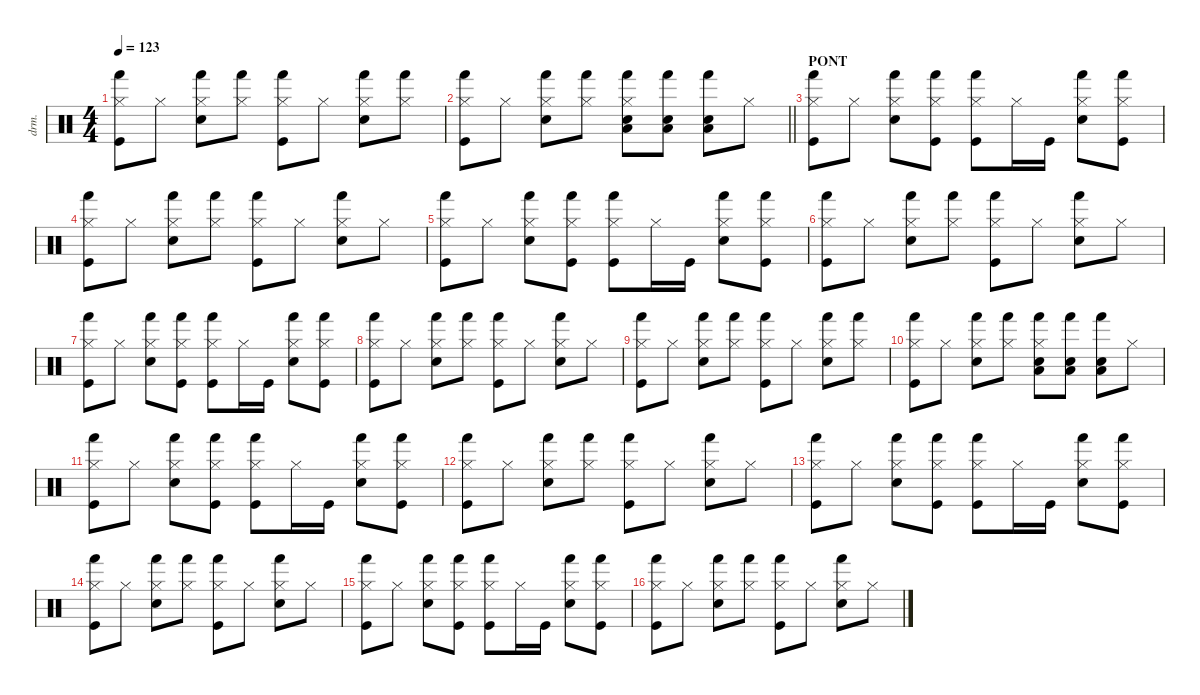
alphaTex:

\defaultSystemsLayout 4
\hideDynamics
\bracketExtendMode nobrackets
\otherSystemsTrackNameOrientation horizontal
\track ("Drums" "drm.") {defaultSystemsLayout 4 instrument percussion}
\staff {score}
\articulation defaults
\ts (4 4)
\tempo 123
\clef neutral
\ks c
("Hand (hit)" "Kick (hit)" "Hi-Hat (closed)").8{dy fff beam Down} "Hi-Hat (closed)".8{beam Down} ("Snare (hit) 2" "Hi-Hat (closed)" "Hand (hit)").8{beam Down} ("Hand (hit)" "Hi-Hat (closed)").8{beam Down} ("Hi-Hat (closed)" "Hand (hit)" "Kick (hit)").8{beam Down} "Hi-Hat (closed)".8{beam Down} ("Hi-Hat (closed)" "Snare (hit) 2" "Hand (hit)").8{beam Down} ("Hi-Hat (closed)" "Hand (hit)").8{beam Down} |
\barLineRight lightlight
("Hi-Hat (closed)" "Kick (hit)" "Hand (hit)").8{beam Down} "Hi-Hat (closed)".8{beam Down} ("Snare (hit) 2" "Hand (hit)" "Hi-Hat (closed)").8{beam Down} ("Hand (hit)" "Hi-Hat (closed)").8{beam Down} ("Snare (hit) 2" "Low Tom (hit)" "Hi-Hat (closed)" "Hand (hit)").8{beam Down} ("Snare (hit) 2" "Low Tom (hit)" "Hand (hit)").8{beam Down} ("Hand (hit)" "Low Tom (hit)" "Snare (hit) 2").8{beam Down} "Hi-Hat (closed)".8{beam Down} |
\section ("" "PONT")
("Hand (hit)" "Hi-Hat (closed)" "Kick (hit)").8{beam Down} "Hi-Hat (closed)".8{beam Down} ("Hi-Hat (closed)" "Hand (hit)" "Snare (hit) 2").8{beam Down} ("Hi-Hat (closed)" "Hand (hit)" "Kick (hit)").8{beam Down} ("Hi-Hat (closed)" "Hand (hit)" "Kick (hit)").8{beam Down} "Hi-Hat (closed)".16{beam Down} "Kick (hit)".16{beam Down} ("Hi-Hat (closed)" "Snare (hit) 2" "Hand (hit)").8{beam Down} ("Hi-Hat (closed)" "Hand (hit)" "Kick (hit)").8{beam Down} |
("Hi-Hat (closed)" "Kick (hit)" "Hand (hit)").8{beam Down} "Hi-Hat (closed)".8{beam Down} ("Snare (hit) 2" "Hand (hit)" "Hi-Hat (closed)").8{beam Down} ("Hi-Hat (closed)" "Hand (hit)").8{beam Down} ("Hi-Hat (closed)" "Kick (hit)" "Hand (hit)").8{beam Down} "Hi-Hat (closed)".8{beam Down} ("Snare (hit) 2" "Hand (hit)" "Hi-Hat (closed)").8{beam Down} "Hi-Hat (closed)".8{beam Down} |
("Hand (hit)" "Hi-Hat (closed)" "Kick (hit)").8{beam Down} "Hi-Hat (closed)".8{beam Down} ("Hi-Hat (closed)" "Hand (hit)" "Snare (hit) 2").8{beam Down} ("Hi-Hat (closed)" "Hand (hit)" "Kick (hit)").8{beam Down} ("Hi-Hat (closed)" "Hand (hit)" "Kick (hit)").8{beam Down} "Hi-Hat (closed)".16{beam Down} "Kick (hit)".16{beam Down} ("Hi-Hat (closed)" "Snare (hit) 2" "Hand (hit)").8{beam Down} ("Hi-Hat (closed)" "Hand (hit)" "Kick (hit)").8{beam Down} |
("Hi-Hat (closed)" "Kick (hit)" "Hand (hit)").8{beam Down} "Hi-Hat (closed)".8{beam Down} ("Snare (hit) 2" "Hand (hit)" "Hi-Hat (closed)").8{beam Down} ("Hi-Hat (closed)" "Hand (hit)").8{beam Down} ("Hi-Hat (closed)" "Kick (hit)" "Hand (hit)").8{beam Down} "Hi-Hat (closed)".8{beam Down} ("Snare (hit) 2" "Hand (hit)" "Hi-Hat (closed)").8{beam Down} "Hi-Hat (closed)".8{beam Down} |
("Hand (hit)" "Hi-Hat (closed)" "Kick (hit)").8{beam Down} "Hi-Hat (closed)".8{beam Down} ("Hi-Hat (closed)" "Hand (hit)" "Snare (hit) 2").8{beam Down} ("Hi-Hat (closed)" "Hand (hit)" "Kick (hit)").8{beam Down} ("Hi-Hat (closed)" "Hand (hit)" "Kick (hit)").8{beam Down} "Hi-Hat (closed)".16{beam Down} "Kick (hit)".16{beam Down} ("Hi-Hat (closed)" "Snare (hit) 2" "Hand (hit)").8{beam Down} ("Hi-Hat (closed)" "Hand (hit)" "Kick (hit)").8{beam Down} |
("Hi-Hat (closed)" "Kick (hit)" "Hand (hit)").8{beam Down} "Hi-Hat (closed)".8{beam Down} ("Snare (hit) 2" "Hand (hit)" "Hi-Hat (closed)").8{beam Down} ("Hi-Hat (closed)" "Hand (hit)").8{beam Down} ("Hi-Hat (closed)" "Kick (hit)" "Hand (hit)").8{beam Down} "Hi-Hat (closed)".8{beam Down} ("Snare (hit) 2" "Hand (hit)" "Hi-Hat (closed)").8{beam Down} "Hi-Hat (closed)".8{beam Down} |
("Kick (hit)" "Hand (hit)" "Hi-Hat (closed)").8{beam Down} "Hi-Hat (closed)".8{beam Down} ("Hand (hit)" "Hi-Hat (closed)" "Snare (hit) 2").8{beam Down} ("Hand (hit)" "Hi-Hat (closed)").8{beam Down} ("Hi-Hat (closed)" "Hand (hit)" "Kick (hit)").8{beam Down} "Hi-Hat (closed)".8{beam Down} ("Snare (hit) 2" "Hi-Hat (closed)" "Hand (hit)").8{beam Down} ("Hi-Hat (closed)" "Hand (hit)").8{beam Down} |
("Hi-Hat (closed)" "Kick (hit)" "Hand (hit)").8{beam Down} "Hi-Hat (closed)".8{beam Down} ("Snare (hit) 2" "Hand (hit)" "Hi-Hat (closed)").8{beam Down} ("Hand (hit)" "Hi-Hat (closed)").8{beam Down} ("Low Tom (hit)" "Snare (hit) 2" "Hi-Hat (closed)" "Hand (hit)").8{beam Down} ("Low Tom (hit)" "Snare (hit) 2" "Hand (hit)").8{beam Down} ("Low Tom (hit)" "Snare (hit) 2" "Hand (hit)").8{beam Down} "Hi-Hat (closed)".8{beam Down} |
("Hand (hit)" "Hi-Hat (closed)" "Kick (hit)").8{beam Down} "Hi-Hat (closed)".8{beam Down} ("Hi-Hat (closed)" "Hand (hit)" "Snare (hit) 2").8{beam Down} ("Hi-Hat (closed)" "Hand (hit)" "Kick (hit)").8{beam Down} ("Hi-Hat (closed)" "Hand (hit)" "Kick (hit)").8{beam Down} "Hi-Hat (closed)".16{beam Down} "Kick (hit)".16{beam Down} ("Hi-Hat (closed)" "Snare (hit) 2" "Hand (hit)").8{beam Down} ("Hi-Hat (closed)" "Hand (hit)" "Kick (hit)").8{beam Down} |
("Hi-Hat (closed)" "Kick (hit)" "Hand (hit)").8{beam Down} "Hi-Hat (closed)".8{beam Down} ("Snare (hit) 2" "Hand (hit)" "Hi-Hat (closed)").8{beam Down} ("Hi-Hat (closed)" "Hand (hit)").8{beam Down} ("Hi-Hat (closed)" "Kick (hit)" "Hand (hit)").8{beam Down} "Hi-Hat (closed)".8{beam Down} ("Snare (hit) 2" "Hand (hit)" "Hi-Hat (closed)").8{beam Down} "Hi-Hat (closed)".8{beam Down} |
("Hand (hit)" "Hi-Hat (closed)" "Kick (hit)").8{beam Down} "Hi-Hat (closed)".8{beam Down} ("Hi-Hat (closed)" "Hand (hit)" "Snare (hit) 2").8{beam Down} ("Hi-Hat (closed)" "Hand (hit)" "Kick (hit)").8{beam Down} ("Hi-Hat (closed)" "Hand (hit)" "Kick (hit)").8{beam Down} "Hi-Hat (closed)".16{beam Down} "Kick (hit)".16{beam Down} ("Hi-Hat (closed)" "Snare (hit) 2" "Hand (hit)").8{beam Down} ("Hi-Hat (closed)" "Hand (hit)" "Kick (hit)").8{beam Down} |
("Hi-Hat (closed)" "Kick (hit)" "Hand (hit)").8{beam Down} "Hi-Hat (closed)".8{beam Down} ("Snare (hit) 2" "Hand (hit)" "Hi-Hat (closed)").8{beam Down} ("Hi-Hat (closed)" "Hand (hit)").8{beam Down} ("Hi-Hat (closed)" "Kick (hit)" "Hand (hit)").8{beam Down} "Hi-Hat (closed)".8{beam Down} ("Snare (hit) 2" "Hand (hit)" "Hi-Hat (closed)").8{beam Down} "Hi-Hat (closed)".8{beam Down} |
("Hand (hit)" "Hi-Hat (closed)" "Kick (hit)").8{beam Down} "Hi-Hat (closed)".8{beam Down} ("Hi-Hat (closed)" "Hand (hit)" "Snare (hit) 2").8{beam Down} ("Hi-Hat (closed)" "Hand (hit)" "Kick (hit)").8{beam Down} ("Hi-Hat (closed)" "Hand (hit)" "Kick (hit)").8{beam Down} "Hi-Hat (closed)".16{beam Down} "Kick (hit)".16{beam Down} ("Hi-Hat (closed)" "Snare (hit) 2" "Hand (hit)").8{beam Down} ("Hi-Hat (closed)" "Hand (hit)" "Kick (hit)").8{beam Down} |
("Hi-Hat (closed)" "Kick (hit)" "Hand (hit)").8{beam Down} "Hi-Hat (closed)".8{beam Down} ("Snare (hit) 2" "Hand (hit)" "Hi-Hat (closed)").8{beam Down} ("Hi-Hat (closed)" "Hand (hit)").8{beam Down} ("Hi-Hat (closed)" "Kick (hit)" "Hand (hit)").8{beam Down} "Hi-Hat (closed)".8{beam Down} ("Snare (hit) 2" "Hand (hit)" "Hi-Hat (closed)").8{beam Down} "Hi-Hat (closed)".8{beam Down}
